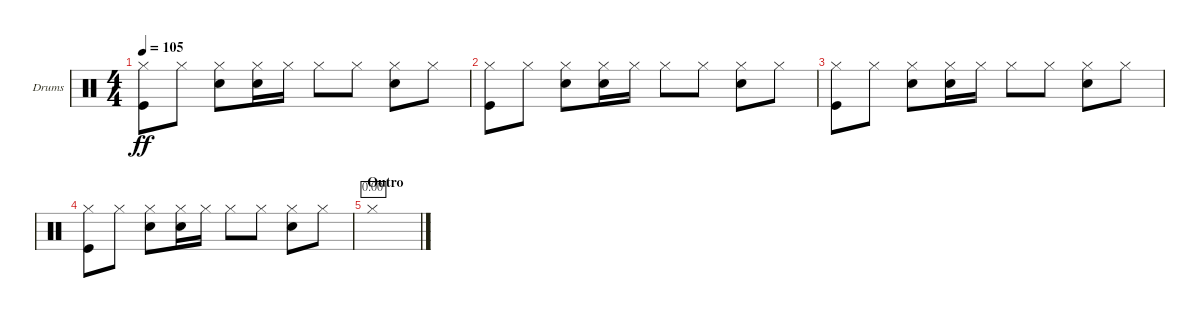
\bracketExtendMode groupsimilarinstruments
\firstSystemTrackNameOrientation horizontal
\otherSystemsTrackNameOrientation horizontal
\track ("Drumkit" "Drums") {instrument percussion}
\staff {score}
\articulation defaults
\ts (4 4)
\tempo 105
\clef neutral
\ks c
("Kick (hit)" "Hi-Hat (closed)").8{dy ff} "Hi-Hat (closed)".8 ("Snare (hit) 2" "Hi-Hat (closed)").8 ("Hi-Hat (closed)" "Snare (hit) 2").16 "Hi-Hat (closed)".16 "Hi-Hat (closed)".8 "Hi-Hat (closed)".8 ("Snare (hit) 2" "Hi-Hat (closed)").8 "Hi-Hat (closed)".8 |
("Kick (hit)" "Hi-Hat (closed)").8 "Hi-Hat (closed)".8 ("Snare (hit) 2" "Hi-Hat (closed)").8 ("Hi-Hat (closed)" "Snare (hit) 2").16 "Hi-Hat (closed)".16 "Hi-Hat (closed)".8 "Hi-Hat (closed)".8 ("Snare (hit) 2" "Hi-Hat (closed)").8 "Hi-Hat (closed)".8 |
("Kick (hit)" "Hi-Hat (closed)").8 "Hi-Hat (closed)".8 ("Snare (hit) 2" "Hi-Hat (closed)").8 ("Hi-Hat (closed)" "Snare (hit) 2").16 "Hi-Hat (closed)".16 "Hi-Hat (closed)".8 "Hi-Hat (closed)".8 ("Snare (hit) 2" "Hi-Hat (closed)").8 "Hi-Hat (closed)".8 |
("Kick (hit)" "Hi-Hat (closed)").8 "Hi-Hat (closed)".8 ("Snare (hit) 2" "Hi-Hat (closed)").8 ("Hi-Hat (closed)" "Snare (hit) 2").16 "Hi-Hat (closed)".16 "Hi-Hat (closed)".8 "Hi-Hat (closed)".8 ("Snare (hit) 2" "Hi-Hat (closed)").8 "Hi-Hat (closed)".8 |
\section ("" "Outro")
"Hi-Hat (closed)".1{timer}
